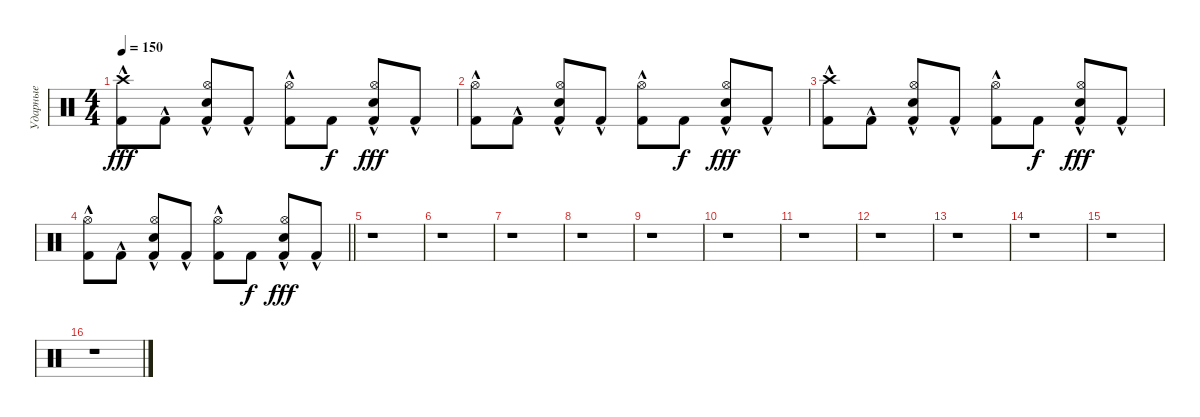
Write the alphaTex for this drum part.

\track ("Ударные" "Ударные") {instrument percussion}
\staff {score}
\articulation defaults
\ts (4 4)
\tempo 150
\clef neutral
\ks c
("Kick (hit) 2"{hac} "Crash high (hit)").8{dy fff} "Kick (hit) 2"{hac}.8 ("Kick (hit) 2"{hac} "Hi-Hat (open)" "Snare (hit) 2").8 "Kick (hit) 2"{hac}.8 ("Kick (hit) 2"{hac} "Hi-Hat (open)").8 "Kick (hit) 2".8{dy f} ("Kick (hit) 2"{hac} "Hi-Hat (open)" "Snare (hit) 2").8{dy fff} "Kick (hit) 2"{hac}.8 |
("Kick (hit) 2"{hac} "Hi-Hat (open)").8 "Kick (hit) 2"{hac}.8 ("Kick (hit) 2"{hac} "Hi-Hat (open)" "Snare (hit) 2").8 "Kick (hit) 2"{hac}.8 ("Kick (hit) 2"{hac} "Hi-Hat (open)").8 "Kick (hit) 2".8{dy f} ("Kick (hit) 2"{hac} "Hi-Hat (open)" "Snare (hit) 2").8{dy fff} "Kick (hit) 2"{hac}.8 |
("Kick (hit) 2"{hac} "Crash high (hit)").8 "Kick (hit) 2"{hac}.8 ("Kick (hit) 2"{hac} "Hi-Hat (open)" "Snare (hit) 2").8 "Kick (hit) 2"{hac}.8 ("Kick (hit) 2"{hac} "Hi-Hat (open)").8 "Kick (hit) 2".8{dy f} ("Kick (hit) 2"{hac} "Hi-Hat (open)" "Snare (hit) 2").8{dy fff} "Kick (hit) 2"{hac}.8 |
\barLineRight lightlight
("Kick (hit) 2"{hac} "Hi-Hat (open)").8 "Kick (hit) 2"{hac}.8 ("Kick (hit) 2"{hac} "Hi-Hat (open)" "Snare (hit) 2").8 "Kick (hit) 2"{hac}.8 ("Kick (hit) 2"{hac} "Hi-Hat (open)").8 "Kick (hit) 2".8{dy f} ("Kick (hit) 2"{hac} "Hi-Hat (open)" "Snare (hit) 2").8{dy fff} "Kick (hit) 2"{hac}.8 |
r.1 |
r.1 |
r.1 |
r.1 |
r.1 |
r.1 |
r.1 |
r.1 |
r.1 |
r.1 |
r.1 |
r.1
